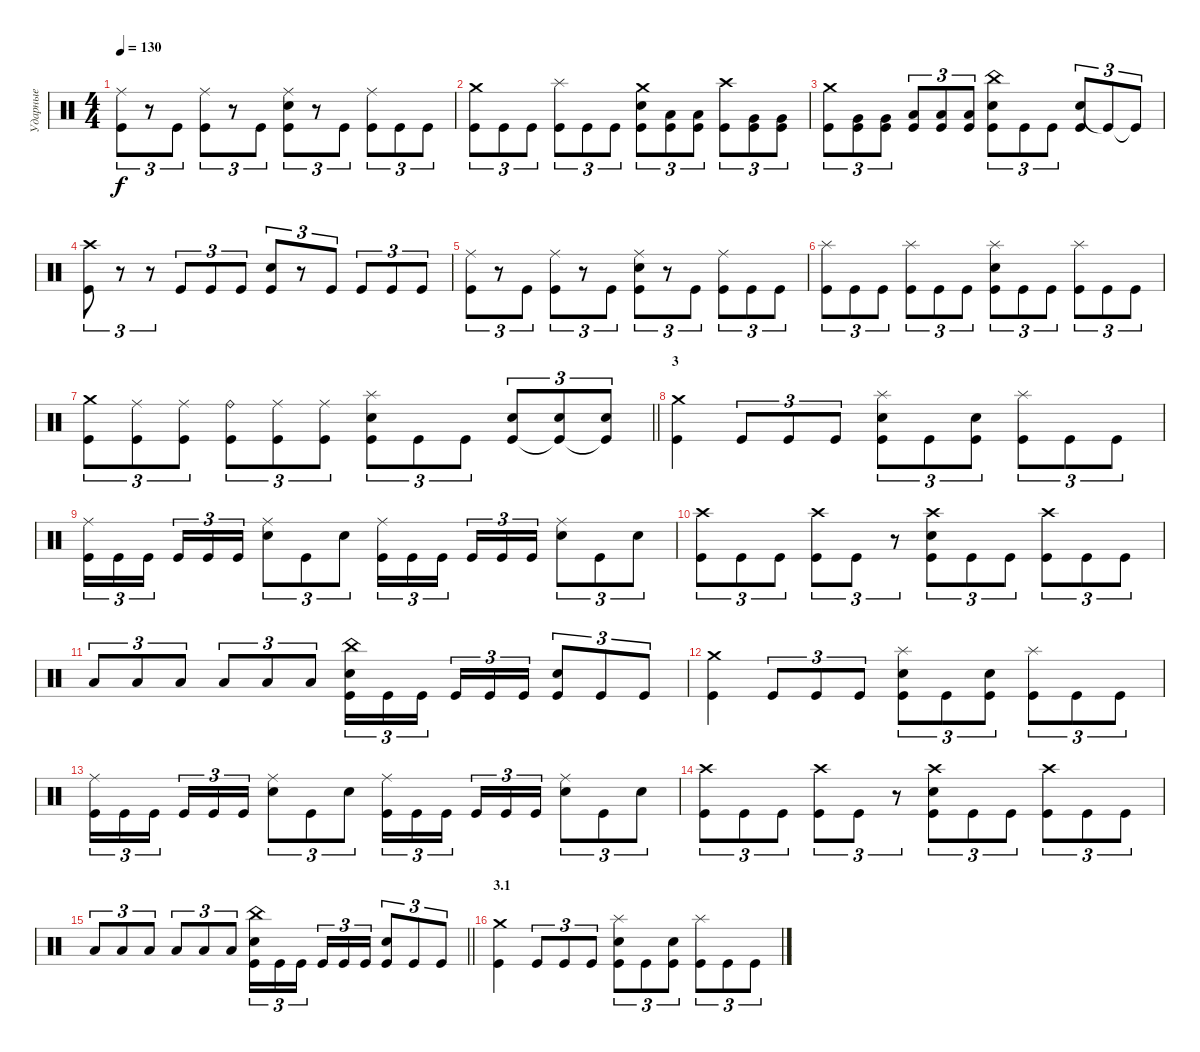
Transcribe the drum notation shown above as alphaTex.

\track ("Ударные" "Ударные") {instrument percussion}
\staff {score}
\articulation defaults
\ts (4 4)
\tempo 130
\clef neutral
\ks c
("Ride (middle)" "Kick (hit)").8{tu (3 2) dy f} r.8{tu (3 2)} "Kick (hit)".8{tu (3 2)} ("Ride (middle)" "Kick (hit)").8{tu (3 2)} r.8{tu (3 2)} "Kick (hit)".8{tu (3 2)} ("Ride (middle)" "Electric Snare (hit)" "Kick (hit)").8{tu (3 2)} r.8{tu (3 2)} "Kick (hit)".8{tu (3 2)} ("Ride (middle)" "Kick (hit)").8{tu (3 2)} "Kick (hit)".8{tu (3 2)} "Kick (hit)".8{tu (3 2)} |
("Crash medium (hit)" "Kick (hit)").8{tu (3 2)} "Kick (hit)".8{tu (3 2)} "Kick (hit)".8{tu (3 2)} ("Splash (hit)" "Kick (hit)").8{tu (3 2)} "Kick (hit)".8{tu (3 2)} "Kick (hit)".8{tu (3 2)} ("Crash medium (hit)" "Electric Snare (hit)" "Kick (hit)").8{tu (3 2)} ("Low Tom (hit)" "Kick (hit)").8{tu (3 2)} ("Low Tom (hit)" "Kick (hit)").8{tu (3 2)} ("Crash high (hit)" "Kick (hit)").8{tu (3 2)} ("Very Low Tom (hit)" "Kick (hit)").8{tu (3 2)} ("Very Low Tom (hit)" "Kick (hit)").8{tu (3 2)} |
("Crash medium (hit)" "Kick (hit)").8{tu (3 2)} ("Very Low Tom (hit)" "Kick (hit)").8{tu (3 2)} ("Very Low Tom (hit)" "Kick (hit)").8{tu (3 2)} ("Low Floor Tom (hit)" "Kick (hit)").8{tu (3 2)} ("Low Floor Tom (hit)" "Kick (hit)").8{tu (3 2)} ("Low Floor Tom (hit)" "Kick (hit)").8{tu (3 2)} ("China (hit)" "Electric Snare (hit)" "Kick (hit)").8{tu (3 2)} "Kick (hit)".8{tu (3 2)} "Kick (hit)".8{tu (3 2)} ("Electric Snare (hit)" "Kick (hit)").8{tu (3 2)} "Kick (hit)"{t}.8{tu (3 2)} "Kick (hit)"{t}.8{tu (3 2)} |
("Crash high (hit)" "Kick (hit)").8{tu (3 2)} r.8{tu (3 2)} r.8{tu (3 2)} "Kick (hit)".8{tu (3 2)} "Kick (hit)".8{tu (3 2)} "Kick (hit)".8{tu (3 2)} ("Electric Snare (hit)" "Kick (hit)").8{tu (3 2)} r.8{tu (3 2)} "Kick (hit)".8{tu (3 2)} "Kick (hit)".8{tu (3 2)} "Kick (hit)".8{tu (3 2)} "Kick (hit)".8{tu (3 2)} |
("Ride (middle)" "Kick (hit)").8{tu (3 2)} r.8{tu (3 2)} "Kick (hit)".8{tu (3 2)} ("Ride (middle)" "Kick (hit)").8{tu (3 2)} r.8{tu (3 2)} "Kick (hit)".8{tu (3 2)} ("Ride (middle)" "Electric Snare (hit)" "Kick (hit)").8{tu (3 2)} r.8{tu (3 2)} "Kick (hit)".8{tu (3 2)} ("Ride (middle)" "Kick (hit)").8{tu (3 2)} "Kick (hit)".8{tu (3 2)} "Kick (hit)".8{tu (3 2)} |
("Splash (hit)" "Kick (hit)").8{tu (3 2)} "Kick (hit)".8{tu (3 2)} "Kick (hit)".8{tu (3 2)} ("Splash (hit)" "Kick (hit)").8{tu (3 2)} "Kick (hit)".8{tu (3 2)} "Kick (hit)".8{tu (3 2)} ("Splash (hit)" "Electric Snare (hit)" "Kick (hit)").8{tu (3 2)} "Kick (hit)".8{tu (3 2)} "Kick (hit)".8{tu (3 2)} ("Splash (hit)" "Kick (hit)").8{tu (3 2)} "Kick (hit)".8{tu (3 2)} "Kick (hit)".8{tu (3 2)} |
\barLineRight lightlight
("Crash medium (hit)" "Kick (hit)").8{tu (3 2)} ("Ride (middle)" "Kick (hit)").8{tu (3 2)} ("Ride (middle)" "Kick (hit)").8{tu (3 2)} ("Ride (bell)" "Kick (hit)").8{tu (3 2)} ("Ride (middle)" "Kick (hit)").8{tu (3 2)} ("Ride (middle)" "Kick (hit)").8{tu (3 2)} ("Splash (hit)" "Electric Snare (hit)" "Kick (hit)").8{tu (3 2)} "Kick (hit)".8{tu (3 2)} "Kick (hit)".8{tu (3 2)} ("Electric Snare (hit)" "Kick (hit)").8{tu (3 2)} ("Electric Snare (hit)" "Kick (hit)"{t}).8{tu (3 2)} ("Electric Snare (hit)" "Kick (hit)"{t}).8{tu (3 2)} |
\section ("" "3")
("Crash medium (hit)" "Kick (hit)").4 "Kick (hit)".8{tu (3 2)} "Kick (hit)".8{tu (3 2)} "Kick (hit)".8{tu (3 2)} ("Splash (hit)" "Electric Snare (hit)" "Kick (hit)").8{tu (3 2)} "Kick (hit)".8{tu (3 2)} ("Electric Snare (hit)" "Kick (hit)").8{tu (3 2)} ("Splash (hit)" "Kick (hit)").8{tu (3 2)} "Kick (hit)".8{tu (3 2)} "Kick (hit)".8{tu (3 2)} |
("Ride (middle)" "Kick (hit)").16{tu (3 2)} "Kick (hit)".16{tu (3 2)} "Kick (hit)".16{tu (3 2) beam splitsecondary} "Kick (hit)".16{tu (3 2)} "Kick (hit)".16{tu (3 2)} "Kick (hit)".16{tu (3 2)} ("Ride (middle)" "Electric Snare (hit)").8{tu (3 2)} "Kick (hit)".8{tu (3 2)} "Electric Snare (hit)".8{tu (3 2)} ("Ride (middle)" "Kick (hit)").16{tu (3 2)} "Kick (hit)".16{tu (3 2)} "Kick (hit)".16{tu (3 2) beam splitsecondary} "Kick (hit)".16{tu (3 2)} "Kick (hit)".16{tu (3 2)} "Kick (hit)".16{tu (3 2)} ("Ride (middle)" "Electric Snare (hit)").8{tu (3 2)} "Kick (hit)".8{tu (3 2)} "Electric Snare (hit)".8{tu (3 2)} |
("Crash high (hit)" "Kick (hit)").8{tu (3 2)} "Kick (hit)".8{tu (3 2)} "Kick (hit)".8{tu (3 2)} ("Crash high (hit)" "Kick (hit)").8{tu (3 2)} "Kick (hit)".8{tu (3 2)} r.8{tu (3 2)} ("Crash high (hit)" "Electric Snare (hit)" "Kick (hit)").8{tu (3 2)} "Kick (hit)".8{tu (3 2)} "Kick (hit)".8{tu (3 2)} ("Crash high (hit)" "Kick (hit)").8{tu (3 2)} "Kick (hit)".8{tu (3 2)} "Kick (hit)".8{tu (3 2)} |
"Low Tom (hit)".8{tu (3 2)} "Low Tom (hit)".8{tu (3 2)} "Low Tom (hit)".8{tu (3 2)} "Low Floor Tom (hit)".8{tu (3 2)} "Low Floor Tom (hit)".8{tu (3 2)} "Low Floor Tom (hit)".8{tu (3 2)} ("China (hit)" "Electric Snare (hit)" "Kick (hit)").16{tu (3 2)} "Kick (hit)".16{tu (3 2)} "Kick (hit)".16{tu (3 2) beam splitsecondary} "Kick (hit)".16{tu (3 2)} "Kick (hit)".16{tu (3 2)} "Kick (hit)".16{tu (3 2)} ("Electric Snare (hit)" "Kick (hit)").8{tu (3 2)} "Kick (hit)".8{tu (3 2)} "Kick (hit)".8{tu (3 2)} |
("Crash medium (hit)" "Kick (hit)").4 "Kick (hit)".8{tu (3 2)} "Kick (hit)".8{tu (3 2)} "Kick (hit)".8{tu (3 2)} ("Splash (hit)" "Electric Snare (hit)" "Kick (hit)").8{tu (3 2)} "Kick (hit)".8{tu (3 2)} ("Electric Snare (hit)" "Kick (hit)").8{tu (3 2)} ("Splash (hit)" "Kick (hit)").8{tu (3 2)} "Kick (hit)".8{tu (3 2)} "Kick (hit)".8{tu (3 2)} |
("Ride (middle)" "Kick (hit)").16{tu (3 2)} "Kick (hit)".16{tu (3 2)} "Kick (hit)".16{tu (3 2) beam splitsecondary} "Kick (hit)".16{tu (3 2)} "Kick (hit)".16{tu (3 2)} "Kick (hit)".16{tu (3 2)} ("Ride (middle)" "Electric Snare (hit)").8{tu (3 2)} "Kick (hit)".8{tu (3 2)} "Electric Snare (hit)".8{tu (3 2)} ("Ride (middle)" "Kick (hit)").16{tu (3 2)} "Kick (hit)".16{tu (3 2)} "Kick (hit)".16{tu (3 2) beam splitsecondary} "Kick (hit)".16{tu (3 2)} "Kick (hit)".16{tu (3 2)} "Kick (hit)".16{tu (3 2)} ("Ride (middle)" "Electric Snare (hit)").8{tu (3 2)} "Kick (hit)".8{tu (3 2)} "Electric Snare (hit)".8{tu (3 2)} |
("Crash high (hit)" "Kick (hit)").8{tu (3 2)} "Kick (hit)".8{tu (3 2)} "Kick (hit)".8{tu (3 2)} ("Crash high (hit)" "Kick (hit)").8{tu (3 2)} "Kick (hit)".8{tu (3 2)} r.8{tu (3 2)} ("Crash high (hit)" "Electric Snare (hit)" "Kick (hit)").8{tu (3 2)} "Kick (hit)".8{tu (3 2)} "Kick (hit)".8{tu (3 2)} ("Crash high (hit)" "Kick (hit)").8{tu (3 2)} "Kick (hit)".8{tu (3 2)} "Kick (hit)".8{tu (3 2)} |
\barLineRight lightlight "Low Tom (hit)".8{tu (3 2)} "Low Tom (hit)".8{tu (3 2)} "Low Tom (hit)".8{tu (3 2)} "Low Floor Tom (hit)".8{tu (3 2)} "Low Floor Tom (hit)".8{tu (3 2)} "Low Floor Tom (hit)".8{tu (3 2)}
("China (hit)" "Electric Snare (hit)" "Kick (hit)").16{tu (3 2)} "Kick (hit)".16{tu (3 2)} "Kick (hit)".16{tu (3 2) beam splitsecondary} "Kick (hit)".16{tu (3 2)} "Kick (hit)".16{tu (3 2)} "Kick (hit)".16{tu (3 2)} ("Electric Snare (hit)" "Kick (hit)").8{tu (3 2)} "Kick (hit)".8{tu (3 2)} "Kick (hit)".8{tu (3 2)} |
\section ("" "3.1")
("Crash medium (hit)" "Kick (hit)").4 "Kick (hit)".8{tu (3 2)} "Kick (hit)".8{tu (3 2)} "Kick (hit)".8{tu (3 2)} ("Splash (hit)" "Electric Snare (hit)" "Kick (hit)").8{tu (3 2)} "Kick (hit)".8{tu (3 2)} ("Electric Snare (hit)" "Kick (hit)").8{tu (3 2)} ("Splash (hit)" "Kick (hit)").8{tu (3 2)} "Kick (hit)".8{tu (3 2)} "Kick (hit)".8{tu (3 2)}
